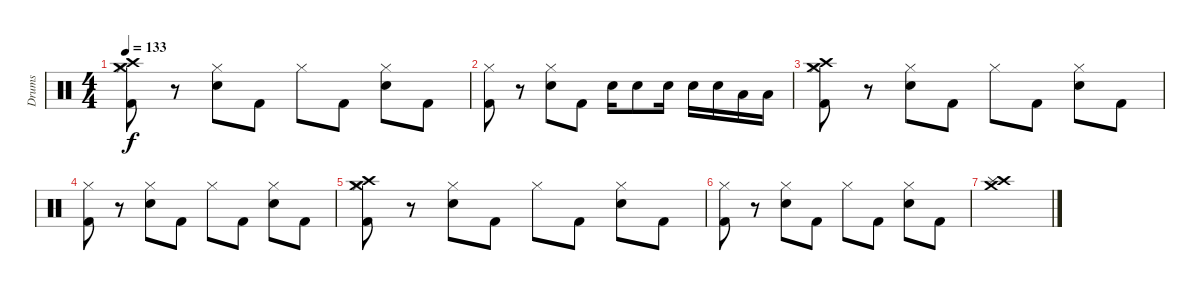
\track ("Drums" "Drums") {instrument percussion}
\staff {score}
\articulation defaults
\ts (4 4)
\tempo 133
\clef neutral
\ks c
("Crash high (hit)" "Crash medium (hit)" "Hi-Hat (closed)" "Kick (hit) 2").8{dy f} r.8 ("Hi-Hat (closed)" "Snare (hit) 2").8 "Kick (hit) 2".8 "Hi-Hat (closed)".8 "Kick (hit) 2".8 ("Hi-Hat (closed)" "Snare (hit) 2").8 "Kick (hit) 2".8 |
("Hi-Hat (closed)" "Kick (hit) 2").8 r.8 ("Hi-Hat (closed)" "Snare (hit) 2").8 "Kick (hit) 2".8 "Snare (hit) 2".16 "Snare (hit) 2".8 "Snare (hit) 2".16 "Snare (hit) 2".16 "Snare (hit) 2".16 "Low Tom (hit)".16 "Low Tom (hit)".16 |
("Crash high (hit)" "Crash medium (hit)" "Hi-Hat (closed)" "Kick (hit) 2").8 r.8 ("Hi-Hat (closed)" "Snare (hit) 2").8 "Kick (hit) 2".8 "Hi-Hat (closed)".8 "Kick (hit) 2".8 ("Hi-Hat (closed)" "Snare (hit) 2").8 "Kick (hit) 2".8 |
("Hi-Hat (closed)" "Kick (hit) 2").8 r.8 ("Hi-Hat (closed)" "Snare (hit) 2").8 "Kick (hit) 2".8 "Hi-Hat (closed)".8 "Kick (hit) 2".8 ("Hi-Hat (closed)" "Snare (hit) 2").8 "Kick (hit) 2".8 |
("Crash high (hit)" "Crash medium (hit)" "Hi-Hat (closed)" "Kick (hit) 2").8 r.8 ("Hi-Hat (closed)" "Snare (hit) 2").8 "Kick (hit) 2".8 "Hi-Hat (closed)".8 "Kick (hit) 2".8 ("Hi-Hat (closed)" "Snare (hit) 2").8 "Kick (hit) 2".8 |
("Hi-Hat (closed)" "Kick (hit) 2").8 r.8 ("Hi-Hat (closed)" "Snare (hit) 2").8 "Kick (hit) 2".8 "Hi-Hat (closed)".8 "Kick (hit) 2".8 ("Hi-Hat (closed)" "Snare (hit) 2").8 "Kick (hit) 2".8 |
("Crash high (hit)" "Crash medium (hit)" "Splash (hit)").1
